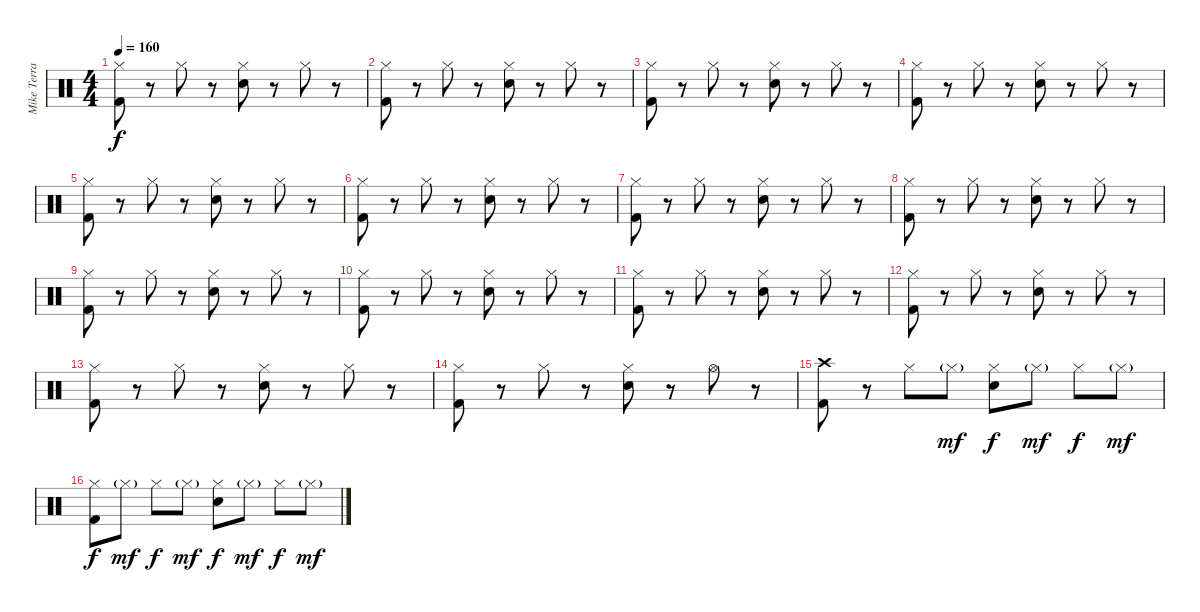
\track ("Mike Terrana" "Mike Terra") {instrument percussion}
\staff {score}
\articulation defaults
\ts (4 4)
\tempo 160
\clef neutral
\ks c
("Hi-Hat (closed)" "Kick (hit) 2").8{dy f} r.8 "Hi-Hat (closed)".8 r.8 ("Hi-Hat (closed)" "Snare (hit) 2").8 r.8 "Hi-Hat (closed)".8 r.8 |
("Hi-Hat (closed)" "Kick (hit) 2").8 r.8 "Hi-Hat (closed)".8 r.8 ("Hi-Hat (closed)" "Snare (hit) 2").8 r.8 "Hi-Hat (closed)".8 r.8 |
("Hi-Hat (closed)" "Kick (hit) 2").8 r.8 "Hi-Hat (closed)".8 r.8 ("Hi-Hat (closed)" "Snare (hit) 2").8 r.8 "Hi-Hat (closed)".8 r.8 |
("Hi-Hat (closed)" "Kick (hit) 2").8 r.8 "Hi-Hat (closed)".8 r.8 ("Hi-Hat (closed)" "Snare (hit) 2").8 r.8 "Hi-Hat (closed)".8 r.8 |
("Hi-Hat (closed)" "Kick (hit) 2").8 r.8 "Hi-Hat (closed)".8 r.8 ("Hi-Hat (closed)" "Snare (hit) 2").8 r.8 "Hi-Hat (closed)".8 r.8 |
("Hi-Hat (closed)" "Kick (hit) 2").8 r.8 "Hi-Hat (closed)".8 r.8 ("Hi-Hat (closed)" "Snare (hit) 2").8 r.8 "Hi-Hat (closed)".8 r.8 |
("Hi-Hat (closed)" "Kick (hit) 2").8 r.8 "Hi-Hat (closed)".8 r.8 ("Hi-Hat (closed)" "Snare (hit) 2").8 r.8 "Hi-Hat (closed)".8 r.8 |
("Hi-Hat (closed)" "Kick (hit) 2").8 r.8 "Hi-Hat (closed)".8 r.8 ("Hi-Hat (closed)" "Snare (hit) 2").8 r.8 "Hi-Hat (closed)".8 r.8 |
("Hi-Hat (closed)" "Kick (hit) 2").8 r.8 "Hi-Hat (closed)".8 r.8 ("Hi-Hat (closed)" "Snare (hit) 2").8 r.8 "Hi-Hat (closed)".8 r.8 |
("Hi-Hat (closed)" "Kick (hit) 2").8 r.8 "Hi-Hat (closed)".8 r.8 ("Hi-Hat (closed)" "Snare (hit) 2").8 r.8 "Hi-Hat (closed)".8 r.8 |
("Hi-Hat (closed)" "Kick (hit) 2").8 r.8 "Hi-Hat (closed)".8 r.8 ("Hi-Hat (closed)" "Snare (hit) 2").8 r.8 "Hi-Hat (closed)".8 r.8 |
("Hi-Hat (closed)" "Kick (hit) 2").8 r.8 "Hi-Hat (closed)".8 r.8 ("Hi-Hat (closed)" "Snare (hit) 2").8 r.8 "Hi-Hat (closed)".8 r.8 |
("Hi-Hat (closed)" "Kick (hit) 2").8 r.8 "Hi-Hat (closed)".8 r.8 ("Hi-Hat (closed)" "Snare (hit) 2").8 r.8 "Hi-Hat (closed)".8 r.8 |
("Hi-Hat (closed)" "Kick (hit) 2").8 r.8 "Hi-Hat (closed)".8 r.8 ("Hi-Hat (closed)" "Snare (hit) 2").8 r.8 "Hi-Hat (open)".8 r.8 |
("Crash high (hit)" "Kick (hit) 2").8 r.8 "Hi-Hat (closed)".8 "Hi-Hat (closed)"{g}.8{dy mf} ("Hi-Hat (closed)" "Snare (hit) 2").8{dy f} "Hi-Hat (closed)"{g}.8{dy mf} "Hi-Hat (closed)".8{dy f} "Hi-Hat (closed)"{g}.8{dy mf} |
("Hi-Hat (closed)" "Kick (hit) 2").8{dy f} "Hi-Hat (closed)"{g}.8{dy mf} "Hi-Hat (closed)".8{dy f} "Hi-Hat (closed)"{g}.8{dy mf} ("Hi-Hat (closed)" "Snare (hit) 2").8{dy f} "Hi-Hat (closed)"{g}.8{dy mf} "Hi-Hat (closed)".8{dy f} "Hi-Hat (closed)"{g}.8{dy mf}
